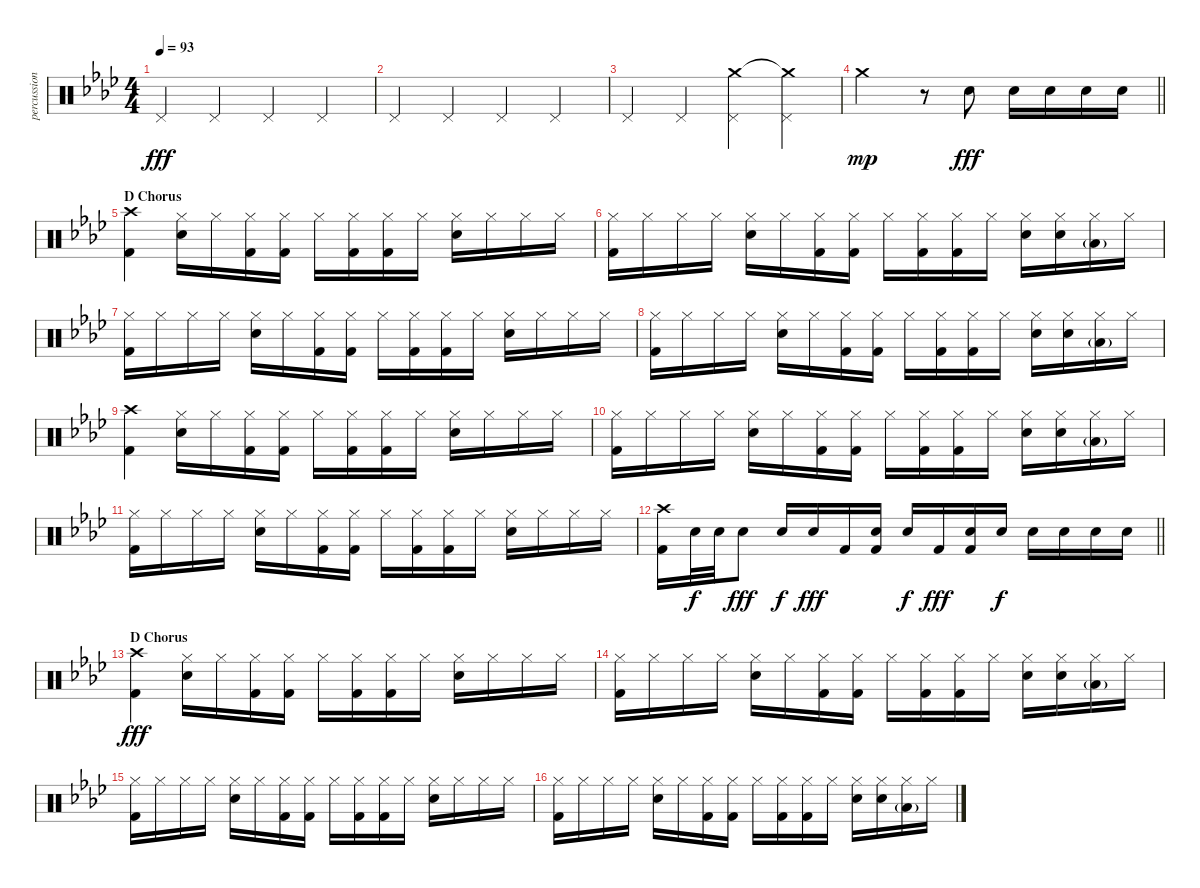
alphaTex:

\track ("percussion" "percussion") {instrument percussion}
\staff {score}
\articulation defaults
\ts (4 4)
\tempo 93
\clef neutral
\ks fminor "Pedal Hi-Hat (hit)".4{dy fff} "Pedal Hi-Hat (hit)".4 "Pedal Hi-Hat (hit)".4 "Pedal Hi-Hat (hit)".4
|
"Pedal Hi-Hat (hit)".4 "Pedal Hi-Hat (hit)".4 "Pedal Hi-Hat (hit)".4 "Pedal Hi-Hat (hit)".4 |
"Pedal Hi-Hat (hit)".4 "Pedal Hi-Hat (hit)".4 ("Crash medium (hit)" "Pedal Hi-Hat (hit)").4 ("Crash medium (hit)"{t} "Pedal Hi-Hat (hit)").4 |
\barLineRight lightlight "Crash medium (hit)".2{dy mp}
r.8 "Snare (hit) 2".8{dy fff} "Snare (hit) 2".16 "Snare (hit) 2".16 "Snare (hit) 2".16 "Snare (hit) 2".16 |
\section ("" "D Chorus")
("Crash high (hit)" "Kick (hit) 2").4 ("Snare (hit) 2" "Hi-Hat (closed)").16 "Hi-Hat (closed)".16 ("Hi-Hat (closed)" "Kick (hit) 2").16 ("Hi-Hat (closed)" "Kick (hit) 2").16 "Hi-Hat (closed)".16 ("Hi-Hat (closed)" "Kick (hit) 2").16 ("Hi-Hat (closed)" "Kick (hit) 2").16 "Hi-Hat (closed)".16 ("Snare (hit) 2" "Hi-Hat (closed)").16 "Hi-Hat (closed)".16 "Hi-Hat (closed)".16 "Hi-Hat (closed)".16 |
("Hi-Hat (closed)" "Kick (hit) 2").16 "Hi-Hat (closed)".16 "Hi-Hat (closed)".16 "Hi-Hat (closed)".16 ("Snare (hit) 2" "Hi-Hat (closed)").16 "Hi-Hat (closed)".16 ("Hi-Hat (closed)" "Kick (hit) 2").16 ("Hi-Hat (closed)" "Kick (hit) 2").16 "Hi-Hat (closed)".16 ("Hi-Hat (closed)" "Kick (hit) 2").16 ("Hi-Hat (closed)" "Kick (hit) 2").16 "Hi-Hat (closed)".16 ("Snare (hit) 2" "Hi-Hat (closed)").16 ("Snare (hit) 2" "Hi-Hat (closed)").16 ("Low Floor Tom (hit)"{g} "Hi-Hat (closed)").16 "Hi-Hat (closed)".16 |
("Hi-Hat (closed)" "Kick (hit) 2").16 "Hi-Hat (closed)".16 "Hi-Hat (closed)".16 "Hi-Hat (closed)".16 ("Snare (hit) 2" "Hi-Hat (closed)").16 "Hi-Hat (closed)".16 ("Hi-Hat (closed)" "Kick (hit) 2").16 ("Hi-Hat (closed)" "Kick (hit) 2").16 "Hi-Hat (closed)".16 ("Hi-Hat (closed)" "Kick (hit) 2").16 ("Hi-Hat (closed)" "Kick (hit) 2").16 "Hi-Hat (closed)".16 ("Snare (hit) 2" "Hi-Hat (closed)").16 "Hi-Hat (closed)".16 "Hi-Hat (closed)".16 "Hi-Hat (closed)".16 |
("Hi-Hat (closed)" "Kick (hit) 2").16 "Hi-Hat (closed)".16 "Hi-Hat (closed)".16 "Hi-Hat (closed)".16 ("Snare (hit) 2" "Hi-Hat (closed)").16 "Hi-Hat (closed)".16 ("Hi-Hat (closed)" "Kick (hit) 2").16 ("Hi-Hat (closed)" "Kick (hit) 2").16 "Hi-Hat (closed)".16 ("Hi-Hat (closed)" "Kick (hit) 2").16 ("Hi-Hat (closed)" "Kick (hit) 2").16 "Hi-Hat (closed)".16 ("Snare (hit) 2" "Hi-Hat (closed)").16 ("Snare (hit) 2" "Hi-Hat (closed)").16 ("Low Floor Tom (hit)"{g} "Hi-Hat (closed)").16 "Hi-Hat (closed)".16 |
("Crash high (hit)" "Kick (hit) 2").4 ("Snare (hit) 2" "Hi-Hat (closed)").16 "Hi-Hat (closed)".16 ("Hi-Hat (closed)" "Kick (hit) 2").16 ("Hi-Hat (closed)" "Kick (hit) 2").16 "Hi-Hat (closed)".16 ("Hi-Hat (closed)" "Kick (hit) 2").16 ("Hi-Hat (closed)" "Kick (hit) 2").16 "Hi-Hat (closed)".16 ("Snare (hit) 2" "Hi-Hat (closed)").16 "Hi-Hat (closed)".16 "Hi-Hat (closed)".16 "Hi-Hat (closed)".16 |
("Hi-Hat (closed)" "Kick (hit) 2").16 "Hi-Hat (closed)".16 "Hi-Hat (closed)".16 "Hi-Hat (closed)".16 ("Snare (hit) 2" "Hi-Hat (closed)").16 "Hi-Hat (closed)".16 ("Hi-Hat (closed)" "Kick (hit) 2").16 ("Hi-Hat (closed)" "Kick (hit) 2").16 "Hi-Hat (closed)".16 ("Hi-Hat (closed)" "Kick (hit) 2").16 ("Hi-Hat (closed)" "Kick (hit) 2").16 "Hi-Hat (closed)".16 ("Snare (hit) 2" "Hi-Hat (closed)").16 ("Snare (hit) 2" "Hi-Hat (closed)").16 ("Low Floor Tom (hit)"{g} "Hi-Hat (closed)").16 "Hi-Hat (closed)".16 |
("Hi-Hat (closed)" "Kick (hit) 2").16 "Hi-Hat (closed)".16 "Hi-Hat (closed)".16 "Hi-Hat (closed)".16 ("Snare (hit) 2" "Hi-Hat (closed)").16 "Hi-Hat (closed)".16 ("Hi-Hat (closed)" "Kick (hit) 2").16 ("Hi-Hat (closed)" "Kick (hit) 2").16 "Hi-Hat (closed)".16 ("Hi-Hat (closed)" "Kick (hit) 2").16 ("Hi-Hat (closed)" "Kick (hit) 2").16 "Hi-Hat (closed)".16 ("Snare (hit) 2" "Hi-Hat (closed)").16 "Hi-Hat (closed)".16 "Hi-Hat (closed)".16 "Hi-Hat (closed)".16 |
\barLineRight lightlight
("Crash high (hit)" "Kick (hit) 2").16 "Snare (hit) 2".32{dy f} "Snare (hit) 2".32 "Snare (hit) 2".8{dy fff} "Snare (hit) 2".16{dy f} "Snare (hit) 2".16{dy fff} "Kick (hit) 2".16 ("Snare (hit) 2" "Kick (hit) 2").16 "Snare (hit) 2".16{dy f} "Kick (hit) 2".16{dy fff} ("Snare (hit) 2" "Kick (hit) 2").16 "Snare (hit) 2".16{dy f} "Snare (hit) 2".16 "Snare (hit) 2".16 "Snare (hit) 2".16 "Snare (hit) 2".16 |
\section ("" "D Chorus")
("Crash high (hit)" "Kick (hit) 2").4{dy fff} ("Snare (hit) 2" "Hi-Hat (closed)").16 "Hi-Hat (closed)".16 ("Hi-Hat (closed)" "Kick (hit) 2").16 ("Hi-Hat (closed)" "Kick (hit) 2").16 "Hi-Hat (closed)".16 ("Hi-Hat (closed)" "Kick (hit) 2").16 ("Hi-Hat (closed)" "Kick (hit) 2").16 "Hi-Hat (closed)".16 ("Snare (hit) 2" "Hi-Hat (closed)").16 "Hi-Hat (closed)".16 "Hi-Hat (closed)".16 "Hi-Hat (closed)".16 |
("Hi-Hat (closed)" "Kick (hit) 2").16 "Hi-Hat (closed)".16 "Hi-Hat (closed)".16 "Hi-Hat (closed)".16 ("Snare (hit) 2" "Hi-Hat (closed)").16 "Hi-Hat (closed)".16 ("Hi-Hat (closed)" "Kick (hit) 2").16 ("Hi-Hat (closed)" "Kick (hit) 2").16 "Hi-Hat (closed)".16 ("Hi-Hat (closed)" "Kick (hit) 2").16 ("Hi-Hat (closed)" "Kick (hit) 2").16 "Hi-Hat (closed)".16 ("Snare (hit) 2" "Hi-Hat (closed)").16 ("Snare (hit) 2" "Hi-Hat (closed)").16 ("Low Floor Tom (hit)"{g} "Hi-Hat (closed)").16 "Hi-Hat (closed)".16 |
("Hi-Hat (closed)" "Kick (hit) 2").16 "Hi-Hat (closed)".16 "Hi-Hat (closed)".16 "Hi-Hat (closed)".16 ("Snare (hit) 2" "Hi-Hat (closed)").16 "Hi-Hat (closed)".16 ("Hi-Hat (closed)" "Kick (hit) 2").16 ("Hi-Hat (closed)" "Kick (hit) 2").16 "Hi-Hat (closed)".16 ("Hi-Hat (closed)" "Kick (hit) 2").16 ("Hi-Hat (closed)" "Kick (hit) 2").16 "Hi-Hat (closed)".16 ("Snare (hit) 2" "Hi-Hat (closed)").16 "Hi-Hat (closed)".16 "Hi-Hat (closed)".16 "Hi-Hat (closed)".16 |
("Hi-Hat (closed)" "Kick (hit) 2").16 "Hi-Hat (closed)".16 "Hi-Hat (closed)".16 "Hi-Hat (closed)".16 ("Snare (hit) 2" "Hi-Hat (closed)").16 "Hi-Hat (closed)".16 ("Hi-Hat (closed)" "Kick (hit) 2").16 ("Hi-Hat (closed)" "Kick (hit) 2").16 "Hi-Hat (closed)".16 ("Hi-Hat (closed)" "Kick (hit) 2").16 ("Hi-Hat (closed)" "Kick (hit) 2").16 "Hi-Hat (closed)".16 ("Snare (hit) 2" "Hi-Hat (closed)").16 ("Snare (hit) 2" "Hi-Hat (closed)").16 ("Low Floor Tom (hit)"{g} "Hi-Hat (closed)").16 "Hi-Hat (closed)".16
